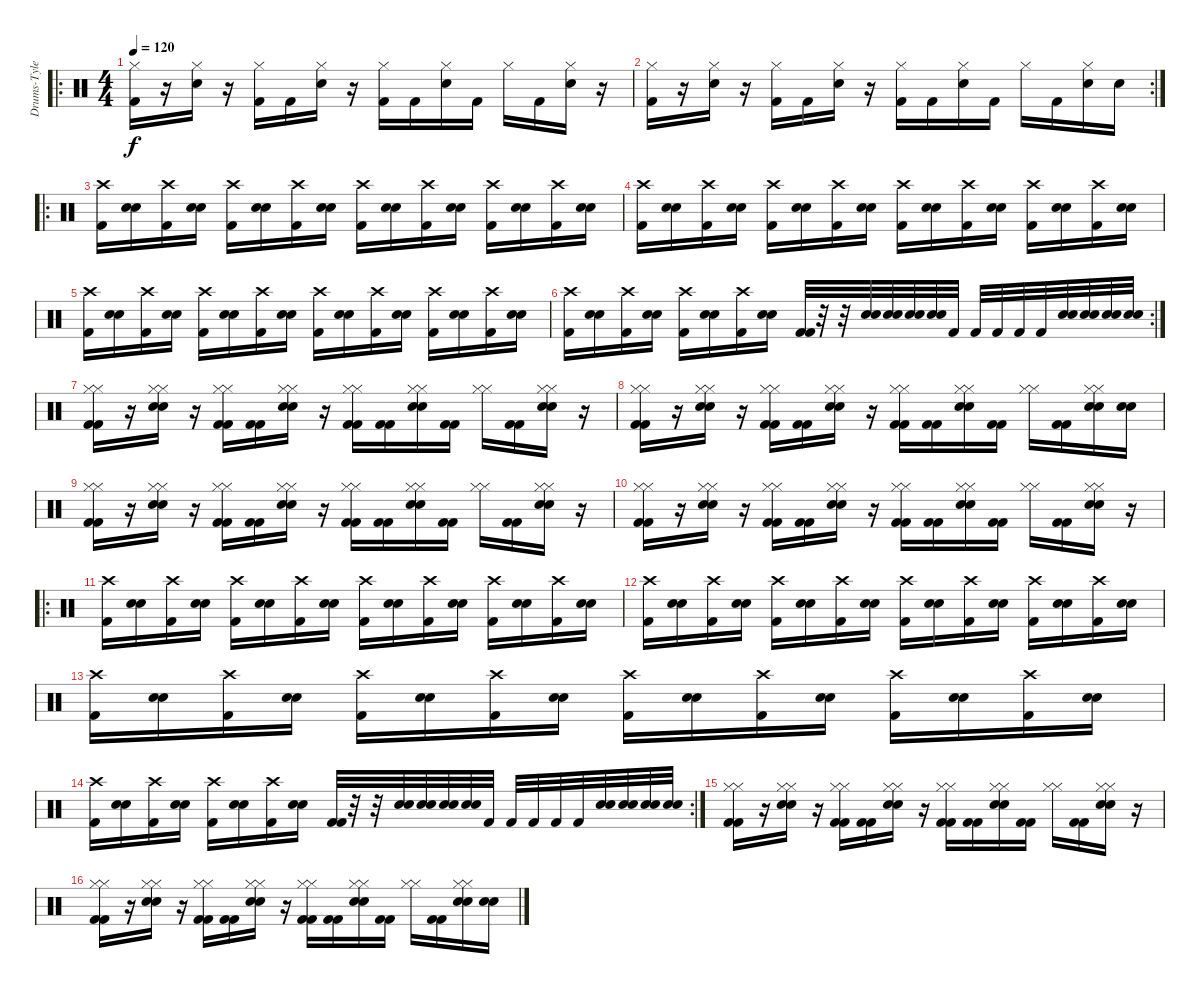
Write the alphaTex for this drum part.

\track ("Drums-Tyler" "Drums-Tyle") {instrument percussion}
\staff {score}
\articulation defaults
\ro
\ts (4 4)
\tempo 120
\clef neutral
\ks c
("Hi-Hat (closed)" "Kick (hit) 2").16{dy f} r.16 ("Hi-Hat (closed)" "Snare (hit) 2").16 r.16 ("Hi-Hat (closed)" "Kick (hit) 2").16 "Kick (hit) 2".16 ("Hi-Hat (closed)" "Snare (hit) 2").16 r.16 ("Hi-Hat (closed)" "Kick (hit) 2").16 "Kick (hit) 2".16 ("Hi-Hat (closed)" "Snare (hit) 2").16 "Kick (hit) 2".16 "Hi-Hat (closed)".16 "Kick (hit) 2".16 ("Hi-Hat (closed)" "Snare (hit) 2").16 r.16 |
\rc 2
("Hi-Hat (closed)" "Kick (hit) 2").16 r.16 ("Hi-Hat (closed)" "Snare (hit) 2").16 r.16 ("Hi-Hat (closed)" "Kick (hit) 2").16 "Kick (hit) 2".16 ("Hi-Hat (closed)" "Snare (hit) 2").16 r.16 ("Hi-Hat (closed)" "Kick (hit) 2").16 "Kick (hit) 2".16 ("Hi-Hat (closed)" "Snare (hit) 2").16 "Kick (hit) 2".16 "Hi-Hat (closed)".16 "Kick (hit) 2".16 ("Hi-Hat (closed)" "Snare (hit) 2").16 "Snare (hit) 2".16 |
\ro
("Crash high (hit)" "Kick (hit) 2").16 ("Snare (hit) 2" "Snare (hit) 2").16 ("Crash high (hit)" "Kick (hit) 2").16 ("Snare (hit) 2" "Snare (hit) 2").16 ("Crash high (hit)" "Kick (hit) 2").16 ("Snare (hit) 2" "Snare (hit) 2").16 ("Crash high (hit)" "Kick (hit) 2").16 ("Snare (hit) 2" "Snare (hit) 2").16 ("Crash high (hit)" "Kick (hit) 2").16 ("Snare (hit) 2" "Snare (hit) 2").16 ("Crash high (hit)" "Kick (hit) 2").16 ("Snare (hit) 2" "Snare (hit) 2").16 ("Crash high (hit)" "Kick (hit) 2").16 ("Snare (hit) 2" "Snare (hit) 2").16 ("Crash high (hit)" "Kick (hit) 2").16 ("Snare (hit) 2" "Snare (hit) 2").16 |
("Crash high (hit)" "Kick (hit) 2").16 ("Snare (hit) 2" "Snare (hit) 2").16 ("Crash high (hit)" "Kick (hit) 2").16 ("Snare (hit) 2" "Snare (hit) 2").16 ("Crash high (hit)" "Kick (hit) 2").16 ("Snare (hit) 2" "Snare (hit) 2").16 ("Crash high (hit)" "Kick (hit) 2").16 ("Snare (hit) 2" "Snare (hit) 2").16 ("Crash high (hit)" "Kick (hit) 2").16 ("Snare (hit) 2" "Snare (hit) 2").16 ("Crash high (hit)" "Kick (hit) 2").16 ("Snare (hit) 2" "Snare (hit) 2").16 ("Crash high (hit)" "Kick (hit) 2").16 ("Snare (hit) 2" "Snare (hit) 2").16 ("Crash high (hit)" "Kick (hit) 2").16 ("Snare (hit) 2" "Snare (hit) 2").16 |
("Crash high (hit)" "Kick (hit) 2").16 ("Snare (hit) 2" "Snare (hit) 2").16 ("Crash high (hit)" "Kick (hit) 2").16 ("Snare (hit) 2" "Snare (hit) 2").16 ("Crash high (hit)" "Kick (hit) 2").16 ("Snare (hit) 2" "Snare (hit) 2").16 ("Crash high (hit)" "Kick (hit) 2").16 ("Snare (hit) 2" "Snare (hit) 2").16 ("Crash high (hit)" "Kick (hit) 2").16 ("Snare (hit) 2" "Snare (hit) 2").16 ("Crash high (hit)" "Kick (hit) 2").16 ("Snare (hit) 2" "Snare (hit) 2").16 ("Crash high (hit)" "Kick (hit) 2").16 ("Snare (hit) 2" "Snare (hit) 2").16 ("Crash high (hit)" "Kick (hit) 2").16 ("Snare (hit) 2" "Snare (hit) 2").16 |
\rc 2
("Crash high (hit)" "Kick (hit) 2").16 ("Snare (hit) 2" "Snare (hit) 2").16 ("Crash high (hit)" "Kick (hit) 2").16 ("Snare (hit) 2" "Snare (hit) 2").16 ("Crash high (hit)" "Kick (hit) 2").16 ("Snare (hit) 2" "Snare (hit) 2").16 ("Crash high (hit)" "Kick (hit) 2").16 ("Snare (hit) 2" "Snare (hit) 2").16 ("Kick (hit) 2" "Kick (hit) 2").32 r.32 r.32 ("Snare (hit) 2" "Snare (hit) 2").32 ("Snare (hit) 2" "Snare (hit) 2").32 ("Snare (hit) 2" "Snare (hit) 2").32 ("Snare (hit) 2" "Snare (hit) 2").32 "Kick (hit) 2".32 "Kick (hit) 2".32 "Kick (hit) 2".32 "Kick (hit) 2".32 "Kick (hit) 2".32 ("Snare (hit) 2" "Snare (hit) 2").32 ("Snare (hit) 2" "Snare (hit) 2").32 ("Snare (hit) 2" "Snare (hit) 2").32 ("Snare (hit) 2" "Snare (hit) 2").32 |
("Hi-Hat (closed)" "Kick (hit) 2" "Hi-Hat (closed)" "Kick (hit) 2").16 r.16 ("Hi-Hat (closed)" "Snare (hit) 2" "Hi-Hat (closed)" "Snare (hit) 2").16 r.16 ("Hi-Hat (closed)" "Kick (hit) 2" "Hi-Hat (closed)" "Kick (hit) 2").16 ("Kick (hit) 2" "Kick (hit) 2").16 ("Hi-Hat (closed)" "Snare (hit) 2" "Hi-Hat (closed)" "Snare (hit) 2").16 r.16 ("Hi-Hat (closed)" "Kick (hit) 2" "Hi-Hat (closed)" "Kick (hit) 2").16 ("Kick (hit) 2" "Kick (hit) 2").16 ("Hi-Hat (closed)" "Snare (hit) 2" "Hi-Hat (closed)" "Snare (hit) 2").16 ("Kick (hit) 2" "Kick (hit) 2").16 ("Hi-Hat (closed)" "Hi-Hat (closed)").16 ("Kick (hit) 2" "Kick (hit) 2").16 ("Hi-Hat (closed)" "Snare (hit) 2" "Hi-Hat (closed)" "Snare (hit) 2").16 r.16 |
("Hi-Hat (closed)" "Kick (hit) 2" "Hi-Hat (closed)" "Kick (hit) 2").16 r.16 ("Hi-Hat (closed)" "Snare (hit) 2" "Hi-Hat (closed)" "Snare (hit) 2").16 r.16 ("Hi-Hat (closed)" "Kick (hit) 2" "Hi-Hat (closed)" "Kick (hit) 2").16 ("Kick (hit) 2" "Kick (hit) 2").16 ("Hi-Hat (closed)" "Snare (hit) 2" "Hi-Hat (closed)" "Snare (hit) 2").16 r.16 ("Hi-Hat (closed)" "Kick (hit) 2" "Hi-Hat (closed)" "Kick (hit) 2").16 ("Kick (hit) 2" "Kick (hit) 2").16 ("Hi-Hat (closed)" "Snare (hit) 2" "Hi-Hat (closed)" "Snare (hit) 2").16 ("Kick (hit) 2" "Kick (hit) 2").16 ("Hi-Hat (closed)" "Hi-Hat (closed)").16 ("Kick (hit) 2" "Kick (hit) 2").16 ("Hi-Hat (closed)" "Snare (hit) 2" "Hi-Hat (closed)" "Snare (hit) 2").16 ("Snare (hit) 2" "Snare (hit) 2").16 |
("Hi-Hat (closed)" "Kick (hit) 2" "Hi-Hat (closed)" "Kick (hit) 2").16 r.16 ("Hi-Hat (closed)" "Snare (hit) 2" "Hi-Hat (closed)" "Snare (hit) 2").16 r.16 ("Hi-Hat (closed)" "Kick (hit) 2" "Hi-Hat (closed)" "Kick (hit) 2").16 ("Kick (hit) 2" "Kick (hit) 2").16 ("Hi-Hat (closed)" "Snare (hit) 2" "Hi-Hat (closed)" "Snare (hit) 2").16 r.16 ("Hi-Hat (closed)" "Kick (hit) 2" "Hi-Hat (closed)" "Kick (hit) 2").16 ("Kick (hit) 2" "Kick (hit) 2").16 ("Hi-Hat (closed)" "Snare (hit) 2" "Hi-Hat (closed)" "Snare (hit) 2").16 ("Kick (hit) 2" "Kick (hit) 2").16 ("Hi-Hat (closed)" "Hi-Hat (closed)").16 ("Kick (hit) 2" "Kick (hit) 2").16 ("Hi-Hat (closed)" "Snare (hit) 2" "Hi-Hat (closed)" "Snare (hit) 2").16 r.16 |
("Hi-Hat (closed)" "Kick (hit) 2" "Hi-Hat (closed)" "Kick (hit) 2").16 r.16 ("Hi-Hat (closed)" "Snare (hit) 2" "Hi-Hat (closed)" "Snare (hit) 2").16 r.16 ("Hi-Hat (closed)" "Kick (hit) 2" "Hi-Hat (closed)" "Kick (hit) 2").16 ("Kick (hit) 2" "Kick (hit) 2").16 ("Hi-Hat (closed)" "Snare (hit) 2" "Hi-Hat (closed)" "Snare (hit) 2").16 r.16 ("Hi-Hat (closed)" "Kick (hit) 2" "Hi-Hat (closed)" "Kick (hit) 2").16 ("Kick (hit) 2" "Kick (hit) 2").16 ("Hi-Hat (closed)" "Snare (hit) 2" "Hi-Hat (closed)" "Snare (hit) 2").16 ("Kick (hit) 2" "Kick (hit) 2").16 ("Hi-Hat (closed)" "Hi-Hat (closed)").16 ("Kick (hit) 2" "Kick (hit) 2").16 ("Hi-Hat (closed)" "Snare (hit) 2" "Hi-Hat (closed)" "Snare (hit) 2").16 r.16 |
\ro
("Crash high (hit)" "Kick (hit) 2").16 ("Snare (hit) 2" "Snare (hit) 2").16 ("Crash high (hit)" "Kick (hit) 2").16 ("Snare (hit) 2" "Snare (hit) 2").16 ("Crash high (hit)" "Kick (hit) 2").16 ("Snare (hit) 2" "Snare (hit) 2").16 ("Crash high (hit)" "Kick (hit) 2").16 ("Snare (hit) 2" "Snare (hit) 2").16 ("Crash high (hit)" "Kick (hit) 2").16 ("Snare (hit) 2" "Snare (hit) 2").16 ("Crash high (hit)" "Kick (hit) 2").16 ("Snare (hit) 2" "Snare (hit) 2").16 ("Crash high (hit)" "Kick (hit) 2").16 ("Snare (hit) 2" "Snare (hit) 2").16 ("Crash high (hit)" "Kick (hit) 2").16 ("Snare (hit) 2" "Snare (hit) 2").16 |
("Crash high (hit)" "Kick (hit) 2").16 ("Snare (hit) 2" "Snare (hit) 2").16 ("Crash high (hit)" "Kick (hit) 2").16 ("Snare (hit) 2" "Snare (hit) 2").16 ("Crash high (hit)" "Kick (hit) 2").16 ("Snare (hit) 2" "Snare (hit) 2").16 ("Crash high (hit)" "Kick (hit) 2").16 ("Snare (hit) 2" "Snare (hit) 2").16 ("Crash high (hit)" "Kick (hit) 2").16 ("Snare (hit) 2" "Snare (hit) 2").16 ("Crash high (hit)" "Kick (hit) 2").16 ("Snare (hit) 2" "Snare (hit) 2").16 ("Crash high (hit)" "Kick (hit) 2").16 ("Snare (hit) 2" "Snare (hit) 2").16 ("Crash high (hit)" "Kick (hit) 2").16 ("Snare (hit) 2" "Snare (hit) 2").16 |
("Crash high (hit)" "Kick (hit) 2").16 ("Snare (hit) 2" "Snare (hit) 2").16 ("Crash high (hit)" "Kick (hit) 2").16 ("Snare (hit) 2" "Snare (hit) 2").16 ("Crash high (hit)" "Kick (hit) 2").16 ("Snare (hit) 2" "Snare (hit) 2").16 ("Crash high (hit)" "Kick (hit) 2").16 ("Snare (hit) 2" "Snare (hit) 2").16 ("Crash high (hit)" "Kick (hit) 2").16 ("Snare (hit) 2" "Snare (hit) 2").16 ("Crash high (hit)" "Kick (hit) 2").16 ("Snare (hit) 2" "Snare (hit) 2").16 ("Crash high (hit)" "Kick (hit) 2").16 ("Snare (hit) 2" "Snare (hit) 2").16 ("Crash high (hit)" "Kick (hit) 2").16 ("Snare (hit) 2" "Snare (hit) 2").16 |
\rc 2
("Crash high (hit)" "Kick (hit) 2").16 ("Snare (hit) 2" "Snare (hit) 2").16 ("Crash high (hit)" "Kick (hit) 2").16 ("Snare (hit) 2" "Snare (hit) 2").16 ("Crash high (hit)" "Kick (hit) 2").16 ("Snare (hit) 2" "Snare (hit) 2").16 ("Crash high (hit)" "Kick (hit) 2").16 ("Snare (hit) 2" "Snare (hit) 2").16 ("Kick (hit) 2" "Kick (hit) 2").32 r.32 r.32 ("Snare (hit) 2" "Snare (hit) 2").32 ("Snare (hit) 2" "Snare (hit) 2").32 ("Snare (hit) 2" "Snare (hit) 2").32 ("Snare (hit) 2" "Snare (hit) 2").32 "Kick (hit) 2".32 "Kick (hit) 2".32 "Kick (hit) 2".32 "Kick (hit) 2".32 "Kick (hit) 2".32 ("Snare (hit) 2" "Snare (hit) 2").32 ("Snare (hit) 2" "Snare (hit) 2").32 ("Snare (hit) 2" "Snare (hit) 2").32 ("Snare (hit) 2" "Snare (hit) 2").32 |
("Hi-Hat (closed)" "Kick (hit) 2" "Hi-Hat (closed)" "Kick (hit) 2").16 r.16 ("Hi-Hat (closed)" "Snare (hit) 2" "Hi-Hat (closed)" "Snare (hit) 2").16 r.16 ("Hi-Hat (closed)" "Kick (hit) 2" "Hi-Hat (closed)" "Kick (hit) 2").16 ("Kick (hit) 2" "Kick (hit) 2").16 ("Hi-Hat (closed)" "Snare (hit) 2" "Hi-Hat (closed)" "Snare (hit) 2").16 r.16 ("Hi-Hat (closed)" "Kick (hit) 2" "Hi-Hat (closed)" "Kick (hit) 2").16 ("Kick (hit) 2" "Kick (hit) 2").16 ("Hi-Hat (closed)" "Snare (hit) 2" "Hi-Hat (closed)" "Snare (hit) 2").16 ("Kick (hit) 2" "Kick (hit) 2").16 ("Hi-Hat (closed)" "Hi-Hat (closed)").16 ("Kick (hit) 2" "Kick (hit) 2").16 ("Hi-Hat (closed)" "Snare (hit) 2" "Hi-Hat (closed)" "Snare (hit) 2").16 r.16 |
("Hi-Hat (closed)" "Kick (hit) 2" "Hi-Hat (closed)" "Kick (hit) 2").16 r.16 ("Hi-Hat (closed)" "Snare (hit) 2" "Hi-Hat (closed)" "Snare (hit) 2").16 r.16 ("Hi-Hat (closed)" "Kick (hit) 2" "Hi-Hat (closed)" "Kick (hit) 2").16 ("Kick (hit) 2" "Kick (hit) 2").16 ("Hi-Hat (closed)" "Snare (hit) 2" "Hi-Hat (closed)" "Snare (hit) 2").16 r.16 ("Hi-Hat (closed)" "Kick (hit) 2" "Hi-Hat (closed)" "Kick (hit) 2").16 ("Kick (hit) 2" "Kick (hit) 2").16 ("Hi-Hat (closed)" "Snare (hit) 2" "Hi-Hat (closed)" "Snare (hit) 2").16 ("Kick (hit) 2" "Kick (hit) 2").16 ("Hi-Hat (closed)" "Hi-Hat (closed)").16 ("Kick (hit) 2" "Kick (hit) 2").16 ("Hi-Hat (closed)" "Snare (hit) 2" "Hi-Hat (closed)" "Snare (hit) 2").16 ("Snare (hit) 2" "Snare (hit) 2").16
